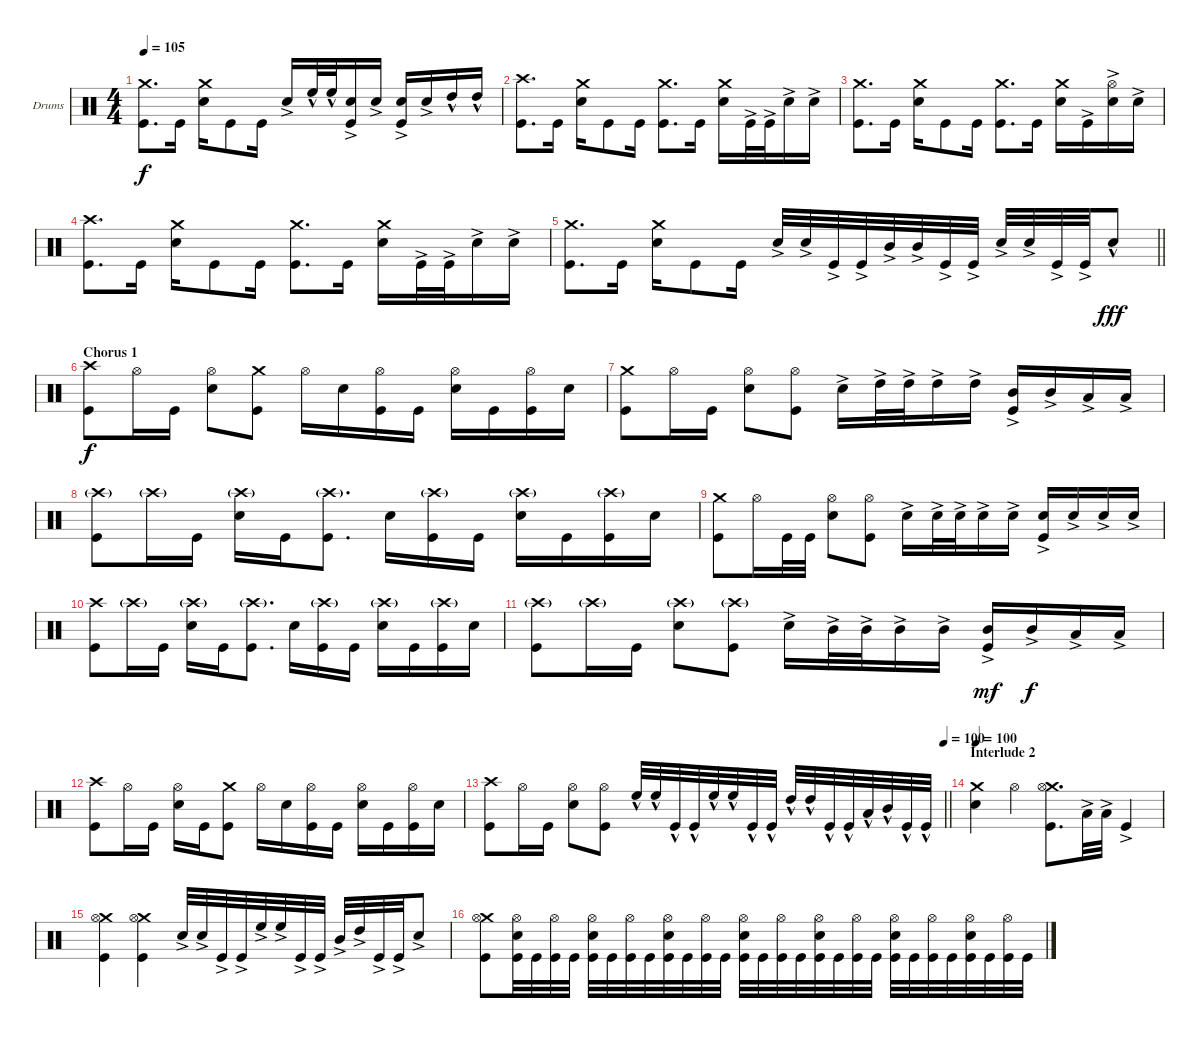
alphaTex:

\bracketExtendMode groupsimilarinstruments
\firstSystemTrackNameOrientation horizontal
\otherSystemsTrackNameOrientation horizontal
\track ("Drumkit" "Drums") {instrument percussion}
\staff {score}
\articulation defaults
\ts (4 4)
\tempo 105
\clef neutral
\ks c
("Crash medium (hit)" "Kick (hit)").8{d dy f} "Kick (hit)".16 ("Crash medium (hit)" "Snare (hit) 2").16 "Kick (hit)".8 "Kick (hit)".16 "Snare (hit) 2"{ac}.16 "High Floor Tom (hit)"{hac}.32 "High Floor Tom (hit)"{hac}.32 ("Snare (hit) 2"{ac} "Kick (hit)").16 "Snare (hit) 2"{ac}.16 ("Snare (hit) 2"{ac} "Kick (hit)").16 "Snare (hit) 2"{ac}.16 "High Tom (hit)"{hac}.16 "High Tom (hit)"{hac}.16 |
("Crash high (hit)" "Kick (hit)").8{d} "Kick (hit)".16 ("Crash medium (hit)" "Snare (hit) 2").16 "Kick (hit)".8 "Kick (hit)".16 ("Crash medium (hit)" "Kick (hit)").8{d} "Kick (hit)".16 ("Crash medium (hit)" "Snare (hit) 2").16 "Kick (hit)"{ac}.32 "Kick (hit)"{ac}.32 "Snare (hit) 2"{ac}.16 "Snare (hit) 2"{ac}.16 |
("Crash medium (hit)" "Kick (hit)").8{d} "Kick (hit)".16 ("Crash medium (hit)" "Snare (hit) 2").16 "Kick (hit)".8 "Kick (hit)".16 ("Crash medium (hit)" "Kick (hit)").8{d} "Kick (hit)".16 ("Crash medium (hit)" "Snare (hit) 2").16 "Kick (hit)"{ac}.16 ("Hi-Hat (open)"{ac} "Snare (hit) 2"{ac}).16 "Snare (hit) 2"{ac}.16 |
("Crash high (hit)" "Kick (hit)").8{d} "Kick (hit)".16 ("Crash medium (hit)" "Snare (hit) 2").16 "Kick (hit)".8 "Kick (hit)".16 ("Crash medium (hit)" "Kick (hit)").8{d} "Kick (hit)".16 ("Crash medium (hit)" "Snare (hit) 2").16 "Kick (hit)"{ac}.32 "Kick (hit)"{ac}.32 "Snare (hit) 2"{ac}.16 "Snare (hit) 2"{ac}.16 |
\barLineRight lightlight
("Crash medium (hit)" "Kick (hit)").8{d} "Kick (hit)".16 ("Crash medium (hit)" "Snare (hit) 2").16 "Kick (hit)".8 "Kick (hit)".16 "Snare (hit) 2"{ac}.32 "Snare (hit) 2"{ac}.32 "Kick (hit)"{ac}.32 "Kick (hit)"{ac}.32 "Mid Tom (hit)"{ac}.32 "Mid Tom (hit)"{ac}.32 "Kick (hit)"{ac}.32 "Kick (hit)"{ac}.32 "Snare (hit) 2"{ac}.32 "Snare (hit) 2"{ac}.32 "Kick (hit)"{ac}.32 "Kick (hit)"{ac}.32 "Snare (hit) 2"{hac}.8{dy fff} |
\section ("" "Chorus 1")
("Crash high (hit)" "Kick (hit)").8{dy f} "Hi-Hat (open)".16 "Kick (hit)".16 ("Hi-Hat (open)" "Snare (hit) 2").8 ("Crash medium (hit)" "Kick (hit)").8 "Hi-Hat (open)".16 "Snare (hit) 2".16 ("Hi-Hat (open)" "Kick (hit)").16 "Kick (hit)".16 ("Hi-Hat (open)" "Snare (hit) 2").16 "Kick (hit)".16 ("Hi-Hat (open)" "Kick (hit)").16 "Snare (hit) 2".16 |
("Crash medium (hit)" "Kick (hit)").8 "Hi-Hat (open)".16 "Kick (hit)".16 ("Hi-Hat (open)" "Snare (hit) 2").8 ("Hi-Hat (open)" "Kick (hit)").8 "Snare (hit) 2"{ac}.16 "High Tom (hit)"{ac}.32 "High Tom (hit)"{ac}.32 "High Tom (hit)"{ac}.16 "High Tom (hit)"{ac}.16 ("Mid Tom (hit)"{ac} "Kick (hit)").16 "Mid Tom (hit)"{ac}.16 "Low Tom (hit)"{ac}.16 "Low Tom (hit)"{ac}.16 |
("Crash high (hit)"{g} "Kick (hit)").8 "Crash high (hit)"{g}.16 "Kick (hit)".16 ("Crash high (hit)"{g} "Snare (hit) 2").16 "Kick (hit)".16 ("Crash high (hit)"{g} "Kick (hit)").8{d} "Snare (hit) 2".16 ("Crash high (hit)"{g} "Kick (hit)").16 "Kick (hit)".16 ("Crash high (hit)"{g} "Snare (hit) 2").16 "Kick (hit)".16 ("Crash high (hit)"{g} "Kick (hit)").16 "Snare (hit) 2".16 |
("Crash medium (hit)" "Kick (hit)").8 "Hi-Hat (open)".16 "Kick (hit)".32 "Kick (hit)".32 ("Hi-Hat (open)" "Snare (hit) 2").8 ("Hi-Hat (open)" "Kick (hit)").8 "Snare (hit) 2"{ac}.16 "Snare (hit) 2"{ac}.32 "Snare (hit) 2"{ac}.32 "Snare (hit) 2"{ac}.16 "Snare (hit) 2"{ac}.16 ("Snare (hit) 2"{ac} "Kick (hit)").16 "Snare (hit) 2"{ac}.16 "Snare (hit) 2"{ac}.16 "Snare (hit) 2"{ac}.16 |
("Crash high (hit)" "Kick (hit)").8 "Crash high (hit)"{g}.16 "Kick (hit)".16 ("Crash high (hit)"{g} "Snare (hit) 2").16 "Kick (hit)".16 ("Crash high (hit)"{g} "Kick (hit)").8{d} "Snare (hit) 2".16 ("Crash high (hit)"{g} "Kick (hit)").16 "Kick (hit)".16 ("Crash high (hit)"{g} "Snare (hit) 2").16 "Kick (hit)".16 ("Crash high (hit)"{g} "Kick (hit)").16 "Snare (hit) 2".16 |
("Crash high (hit)"{g} "Kick (hit)").8 "Crash high (hit)"{g}.16 "Kick (hit)".16 ("Crash high (hit)"{g} "Snare (hit) 2").8 ("Crash high (hit)"{g} "Kick (hit)").8 "Snare (hit) 2"{ac}.16 "Mid Tom (hit)"{ac}.32 "Mid Tom (hit)"{ac}.32 "Mid Tom (hit)"{ac}.16 "Mid Tom (hit)"{ac}.16 ("Mid Tom (hit)"{ac} "Kick (hit)").16{dy mf} "Mid Tom (hit)"{ac}.16{dy f} "Low Tom (hit)"{ac}.16 "Low Tom (hit)"{ac}.16 |
("Crash high (hit)" "Kick (hit)").8 "Hi-Hat (open)".16 "Kick (hit)".16 ("Hi-Hat (open)" "Snare (hit) 2").16 "Kick (hit)".16 ("Crash medium (hit)" "Kick (hit)").8 "Hi-Hat (open)".16 "Snare (hit) 2".16 ("Hi-Hat (open)" "Kick (hit)").16 "Kick (hit)".16 ("Hi-Hat (open)" "Snare (hit) 2").16 "Kick (hit)".16 ("Hi-Hat (open)" "Kick (hit)").16 "Snare (hit) 2".16 |
\tempo (100 1)
\barLineRight lightlight
("Crash high (hit)" "Kick (hit)").8 "Hi-Hat (open)".16 "Kick (hit)".16 ("Hi-Hat (open)" "Snare (hit) 2").8 ("Hi-Hat (open)" "Kick (hit)").8 "High Floor Tom (hit)"{hac}.32 "High Floor Tom (hit)"{hac}.32 "Kick (hit)"{hac}.32 "Kick (hit)"{hac}.32 "High Floor Tom (hit)"{hac}.32 "High Floor Tom (hit)"{hac}.32 "Kick (hit)"{hac}.32 "Kick (hit)"{hac}.32 "High Tom (hit)"{hac}.32 "High Tom (hit)"{hac}.32 "Kick (hit)"{hac}.32 "Kick (hit)"{hac}.32 "Low Tom (hit)"{hac}.32 "Mid Tom (hit)"{hac}.32 "Kick (hit)"{hac}.32 "Kick (hit)"{hac}.32 |
\section ("" "Interlude 2")
\tempo 100
("Crash medium (hit)" "Snare (hit) 2").4 "Hi-Hat (open)".4 ("Crash medium (hit)" "Hi-Hat (open)" "Kick (hit)").8{d} "Low Tom (hit)"{ac}.32 "Low Tom (hit)"{ac}.32 "Kick (hit)"{ac}.4 |
("Crash medium (hit)" "Hi-Hat (open)" "Kick (hit)").4 ("Crash medium (hit)" "Hi-Hat (open)" "Kick (hit)").4 "Snare (hit) 2"{ac}.32 "Snare (hit) 2"{ac}.32 "Kick (hit)"{ac}.32 "Kick (hit)"{ac}.32 "High Floor Tom (hit)"{ac}.32 "High Floor Tom (hit)"{ac}.32 "Kick (hit)"{ac}.32 "Kick (hit)"{ac}.32 "Mid Tom (hit)"{ac}.32 "High Tom (hit)"{ac}.32 "Kick (hit)"{ac}.32 "Kick (hit)"{ac}.32 "Snare (hit) 2"{ac}.8 |
("Crash medium (hit)" "Hi-Hat (open)" "Kick (hit)").8 ("Hi-Hat (open)" "Snare (hit) 2" "Kick (hit)").32 "Kick (hit)".32 ("Hi-Hat (open)" "Kick (hit)").32 "Kick (hit)".32 ("Hi-Hat (open)" "Snare (hit) 2" "Kick (hit)").32 "Kick (hit)".32 ("Hi-Hat (open)" "Kick (hit)").32 "Kick (hit)".32 ("Hi-Hat (open)" "Snare (hit) 2" "Kick (hit)").32 "Kick (hit)".32 ("Hi-Hat (open)" "Kick (hit)").32 "Kick (hit)".32 ("Hi-Hat (open)" "Snare (hit) 2" "Kick (hit)").32 "Kick (hit)".32 ("Hi-Hat (open)" "Kick (hit)").32 "Kick (hit)".32 ("Hi-Hat (open)" "Snare (hit) 2" "Kick (hit)").32 "Kick (hit)".32 ("Hi-Hat (open)" "Kick (hit)").32 "Kick (hit)".32 ("Hi-Hat (open)" "Snare (hit) 2" "Kick (hit)").32 "Kick (hit)".32 ("Hi-Hat (open)" "Kick (hit)").32 "Kick (hit)".32 ("Hi-Hat (open)" "Snare (hit) 2" "Kick (hit)").32 "Kick (hit)".32 ("Hi-Hat (open)" "Kick (hit)").32 "Kick (hit)".32
